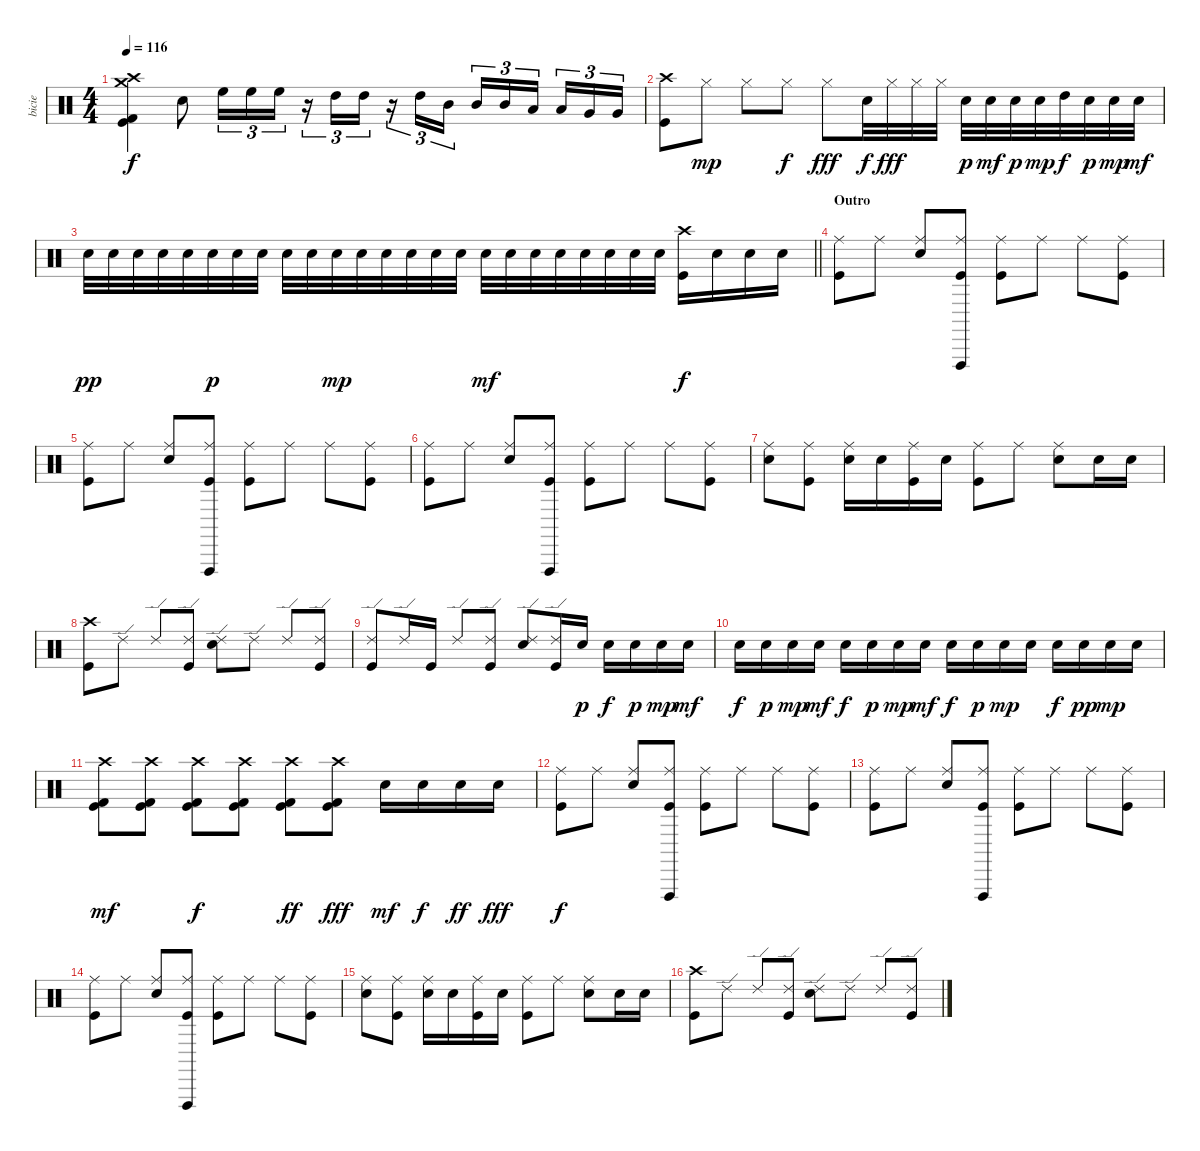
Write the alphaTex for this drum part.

\track ("bicie" "bicie") {instrument percussion}
\staff {score}
\articulation defaults
\ts (4 4)
\tempo 116
\clef neutral
\ks c
("Crash high (hit)" "Crash medium (hit)" "Kick (hit) 2" "Kick (hit)").4{dy f} "Electric Snare (hit)".8 "High Floor Tom (hit)".16{tu (3 2)} "High Floor Tom (hit)".16{tu (3 2)} "High Floor Tom (hit)".16{tu (3 2)} r.16{tu (3 2)} "High Tom (hit)".16{tu (3 2)} "High Tom (hit)".16{tu (3 2)} r.16{tu (3 2)} "High Tom (hit)".16{tu (3 2)} "Mid Tom (hit)".16{tu (3 2)} "Mid Tom (hit)".16{tu (3 2)} "Mid Tom (hit)".16{tu (3 2)} "Low Tom (hit)".16{tu (3 2)} "Low Tom (hit)".16{tu (3 2)} "Very Low Tom (hit)".16{tu (3 2)} "Very Low Tom (hit)".16{tu (3 2)} |
("Crash high (hit)" "Kick (hit)").8 "Hi-Hat (closed)".8{dy mp} "Hi-Hat (closed)".8 "Hi-Hat (closed)".8{dy f} "Hi-Hat (closed)".8{dy fff} "Electric Snare (hit)".32{dy f} "Hi-Hat (closed)".32{dy fff} "Hi-Hat (closed)".32 "Hi-Hat (closed)".32 "Electric Snare (hit)".32{dy p} "Electric Snare (hit)".32{dy mf} "Electric Snare (hit)".32{dy p} "Electric Snare (hit)".32{dy mp} "High Tom (hit)".32{dy f} "Electric Snare (hit)".32{dy p} "Electric Snare (hit)".32{dy mp} "Electric Snare (hit)".32{dy mf} |
\barLineRight lightlight "Electric Snare (hit)".32{dy pp} "Electric Snare (hit)".32 "Electric Snare (hit)".32 "Electric Snare (hit)".32 "Electric Snare (hit)".32 "Electric Snare (hit)".32{dy p} "Electric Snare (hit)".32 "Electric Snare (hit)".32 "Electric Snare (hit)".32 "Electric Snare (hit)".32 "Electric Snare (hit)".32{dy mp} "Electric Snare (hit)".32 "Electric Snare (hit)".32 "Electric Snare (hit)".32 "Electric Snare (hit)".32 "Electric Snare (hit)".32 "Electric Snare (hit)".32{dy mf} "Electric Snare (hit)".32 "Electric Snare (hit)".32 "Electric Snare (hit)".32 "Electric Snare (hit)".32 "Electric Snare (hit)".32 "Electric Snare (hit)".32 "Electric Snare (hit)".32
("Crash high (hit)" "Kick (hit)").16{dy f} "Electric Snare (hit)".16 "Electric Snare (hit)".16 "Electric Snare (hit)".16 |
\section ("" "Outro")
("Ride (middle)" "Kick (hit)").8 "Ride (middle)".8 ("Ride (middle)" "Electric Snare (hit)").8 ("Ride (middle)" "Vibraslap (hit)" "Kick (hit)").8 ("Ride (middle)" "Kick (hit)").8 "Ride (middle)".8 "Ride (middle)".8 ("Ride (middle)" "Kick (hit)").8 |
("Ride (middle)" "Kick (hit)").8 "Ride (middle)".8 ("Ride (middle)" "Electric Snare (hit)").8 ("Ride (middle)" "Vibraslap (hit)" "Kick (hit)").8 ("Ride (middle)" "Kick (hit)").8 "Ride (middle)".8 "Ride (middle)".8 ("Ride (middle)" "Kick (hit)").8 |
("Ride (middle)" "Kick (hit)").8 "Ride (middle)".8 ("Ride (middle)" "Electric Snare (hit)").8 ("Ride (middle)" "Vibraslap (hit)" "Kick (hit)").8 ("Ride (middle)" "Kick (hit)").8 "Ride (middle)".8 "Ride (middle)".8 ("Ride (middle)" "Kick (hit)").8 |
("Ride (middle)" "Electric Snare (hit)").8 ("Ride (middle)" "Kick (hit)").8 ("Ride (middle)" "Electric Snare (hit)").16 "Electric Snare (hit)".16 ("Ride (middle)" "Kick (hit)").16 "Electric Snare (hit)".16 ("Ride (middle)" "Kick (hit)").8 "Ride (middle)".8 ("Ride (middle)" "Electric Snare (hit)").8 "Electric Snare (hit)".16 "Electric Snare (hit)".16 |
("Crash high (hit)" "Kick (hit)").8 "Ride (edge) 2".8 "Ride (edge) 2".8 ("Ride (edge) 2" "Kick (hit)").8 ("Ride (edge) 2" "Electric Snare (hit)").8 "Ride (edge) 2".8 "Ride (edge) 2".8 ("Ride (edge) 2" "Kick (hit)").8 |
("Ride (edge) 2" "Kick (hit)").8 "Ride (edge) 2".16 "Kick (hit)".16 "Ride (edge) 2".8 ("Ride (edge) 2" "Kick (hit)").8 ("Ride (edge) 2" "Electric Snare (hit)").8 ("Ride (edge) 2" "Kick (hit)").16 "Electric Snare (hit)".16{dy p} "Electric Snare (hit)".16{dy f} "Electric Snare (hit)".16{dy p} "Electric Snare (hit)".16{dy mp} "Electric Snare (hit)".16{dy mf} |
"Electric Snare (hit)".16{dy f} "Electric Snare (hit)".16{dy p} "Electric Snare (hit)".16{dy mp} "Electric Snare (hit)".16{dy mf} "Electric Snare (hit)".16{dy f} "Electric Snare (hit)".16{dy p} "Electric Snare (hit)".16{dy mp} "Electric Snare (hit)".16{dy mf} "Electric Snare (hit)".16{dy f} "Electric Snare (hit)".16{dy p} "Electric Snare (hit)".16{dy mp} "Electric Snare (hit)".16 "Electric Snare (hit)".16{dy f} "Electric Snare (hit)".16{dy pp} "Electric Snare (hit)".16{dy mp} "Electric Snare (hit)".16 |
("Crash high (hit)" "Kick (hit) 2" "Kick (hit)").8{dy mf} ("Crash high (hit)" "Kick (hit) 2" "Kick (hit)").8 ("Crash high (hit)" "Kick (hit) 2" "Kick (hit)").8{dy f} ("Crash high (hit)" "Kick (hit) 2" "Kick (hit)").8 ("Crash high (hit)" "Kick (hit) 2" "Kick (hit)").8{dy ff} ("Crash high (hit)" "Kick (hit) 2" "Kick (hit)").8{dy fff} "Electric Snare (hit)".16{dy mf} "Electric Snare (hit)".16{dy f} "Electric Snare (hit)".16{dy ff} "Electric Snare (hit)".16{dy fff} |
("Ride (middle)" "Kick (hit)").8{dy f} "Ride (middle)".8 ("Ride (middle)" "Electric Snare (hit)").8 ("Ride (middle)" "Vibraslap (hit)" "Kick (hit)").8 ("Ride (middle)" "Kick (hit)").8 "Ride (middle)".8 "Ride (middle)".8 ("Ride (middle)" "Kick (hit)").8 |
("Ride (middle)" "Kick (hit)").8 "Ride (middle)".8 ("Ride (middle)" "Electric Snare (hit)").8 ("Ride (middle)" "Vibraslap (hit)" "Kick (hit)").8 ("Ride (middle)" "Kick (hit)").8 "Ride (middle)".8 "Ride (middle)".8 ("Ride (middle)" "Kick (hit)").8 |
("Ride (middle)" "Kick (hit)").8 "Ride (middle)".8 ("Ride (middle)" "Electric Snare (hit)").8 ("Ride (middle)" "Vibraslap (hit)" "Kick (hit)").8 ("Ride (middle)" "Kick (hit)").8 "Ride (middle)".8 "Ride (middle)".8 ("Ride (middle)" "Kick (hit)").8 |
("Ride (middle)" "Electric Snare (hit)").8 ("Ride (middle)" "Kick (hit)").8 ("Ride (middle)" "Electric Snare (hit)").16 "Electric Snare (hit)".16 ("Ride (middle)" "Kick (hit)").16 "Electric Snare (hit)".16 ("Ride (middle)" "Kick (hit)").8 "Ride (middle)".8 ("Ride (middle)" "Electric Snare (hit)").8 "Electric Snare (hit)".16 "Electric Snare (hit)".16 |
("Crash high (hit)" "Kick (hit)").8 "Ride (edge) 2".8 "Ride (edge) 2".8 ("Ride (edge) 2" "Kick (hit)").8 ("Ride (edge) 2" "Electric Snare (hit)").8 "Ride (edge) 2".8 "Ride (edge) 2".8 ("Ride (edge) 2" "Kick (hit)").8
